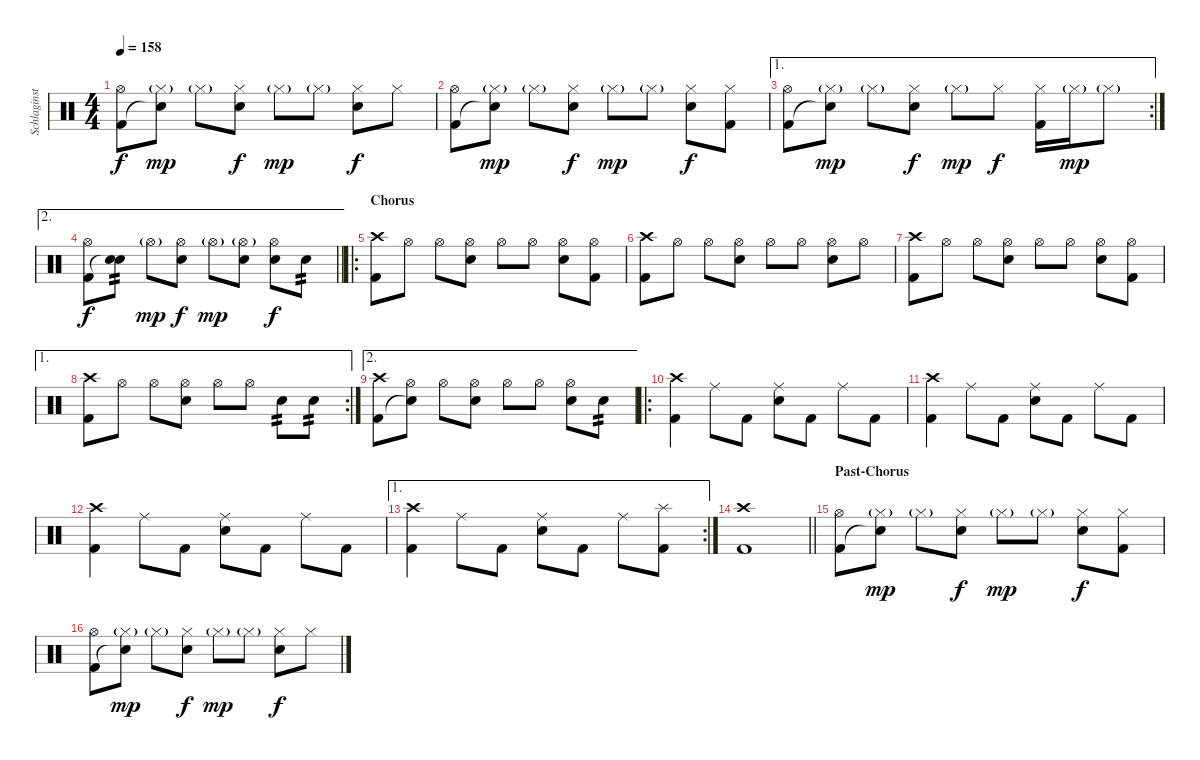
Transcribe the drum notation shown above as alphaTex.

\track ("Schlaginstrumente - Auswahl" "Schlaginst") {instrument percussion}
\staff {score}
\articulation defaults
\ts (4 4)
\tempo 158
\clef neutral
\ks c
("Hi-Hat (open)" "Kick (hit) 2").8{dy f} ("Hi-Hat (closed)"{g} "Snare (hit)"{t}).8{dy mp} "Hi-Hat (closed)"{g}.8 ("Hi-Hat (closed)" "Snare (hit) 2").8{dy f} "Hi-Hat (closed)"{g}.8{dy mp} "Hi-Hat (closed)"{g}.8 ("Hi-Hat (closed)" "Snare (hit) 2").8{dy f} "Hi-Hat (closed)".8 |
("Hi-Hat (open)" "Kick (hit) 2").8 ("Hi-Hat (closed)"{g} "Snare (hit)"{t}).8{dy mp} "Hi-Hat (closed)"{g}.8 ("Hi-Hat (closed)" "Snare (hit) 2").8{dy f} "Hi-Hat (closed)"{g}.8{dy mp} "Hi-Hat (closed)"{g}.8 ("Hi-Hat (closed)" "Snare (hit) 2").8{dy f} ("Hi-Hat (closed)" "Kick (hit) 2").8 |
\ae 1
\rc 2
("Hi-Hat (open)" "Kick (hit) 2").8 ("Hi-Hat (closed)"{g} "Snare (hit)"{t}).8{dy mp} "Hi-Hat (closed)"{g}.8 ("Hi-Hat (closed)" "Snare (hit) 2").8{dy f} "Hi-Hat (closed)"{g}.8{dy mp} "Hi-Hat (closed)".8{dy f} ("Hi-Hat (closed)" "Kick (hit) 2").16 "Hi-Hat (closed)"{g}.16{dy mp} "Hi-Hat (closed)"{g}.8 |
\ae 2
\barLineRight lightlight
("Hi-Hat (open)" "Kick (hit) 2").8{dy f} ("Snare (hit) 2" "Snare (hit)"{t}).8{tp 2} "Hi-Hat (open)"{g}.8{dy mp} ("Hi-Hat (open)" "Snare (hit) 2").8{dy f} "Hi-Hat (open)"{g}.8{dy mp} ("Hi-Hat (open)"{g} "Snare (hit) 2").8 ("Hi-Hat (open)" "Snare (hit) 2").8{dy f} "Snare (hit) 2".8{tp 2} |
\ro
\section ("" "Chorus")
("Crash high (hit)" "Kick (hit) 2").8 "Hi-Hat (open)".8 "Hi-Hat (open)".8 ("Hi-Hat (open)" "Snare (hit) 2").8 "Hi-Hat (open)".8 "Hi-Hat (open)".8 ("Hi-Hat (open)" "Snare (hit) 2").8 ("Hi-Hat (open)" "Kick (hit) 2").8 |
("Crash high (hit)" "Kick (hit) 2").8 "Hi-Hat (open)".8 "Hi-Hat (open)".8 ("Hi-Hat (open)" "Snare (hit) 2").8 "Hi-Hat (open)".8 "Hi-Hat (open)".8 ("Hi-Hat (open)" "Snare (hit) 2").8 "Hi-Hat (open)".8 |
("Crash high (hit)" "Kick (hit) 2").8 "Hi-Hat (open)".8 "Hi-Hat (open)".8 ("Hi-Hat (open)" "Snare (hit) 2").8 "Hi-Hat (open)".8 "Hi-Hat (open)".8 ("Hi-Hat (open)" "Snare (hit) 2").8 ("Hi-Hat (open)" "Kick (hit) 2").8 |
\ae 1
\rc 2
("Crash high (hit)" "Kick (hit) 2").8 "Hi-Hat (open)".8 "Hi-Hat (open)".8 ("Hi-Hat (open)" "Snare (hit) 2").8 "Hi-Hat (open)".8 "Hi-Hat (open)".8 "Snare (hit) 2".8{tp 2} "Snare (hit) 2".8{tp 2} |
\ae 2
("Crash high (hit)" "Kick (hit) 2").8 ("Hi-Hat (open)" "Snare (hit)"{t}).8 "Hi-Hat (open)".8 ("Hi-Hat (open)" "Snare (hit) 2").8 "Hi-Hat (open)".8 "Hi-Hat (open)".8 ("Hi-Hat (open)" "Snare (hit) 2").8 "Snare (hit) 2".8{tp 2} |
\ro
("Crash high (hit)" "Kick (hit) 2").4 "Ride (middle)".8 "Kick (hit) 2".8 ("Ride (middle)" "Snare (hit) 2").8 "Kick (hit) 2".8 "Ride (middle)".8 "Kick (hit) 2".8 |
("Crash high (hit)" "Kick (hit) 2").4 "Ride (middle)".8 "Kick (hit) 2".8 ("Ride (middle)" "Snare (hit) 2").8 "Kick (hit) 2".8 "Ride (middle)".8 "Kick (hit) 2".8 |
("Crash high (hit)" "Kick (hit) 2").4 "Ride (middle)".8 "Kick (hit) 2".8 ("Ride (middle)" "Snare (hit) 2").8 "Kick (hit) 2".8 "Ride (middle)".8 "Kick (hit) 2".8 |
\ae 1
\rc 2
("Crash high (hit)" "Kick (hit) 2").4 "Ride (middle)".8 "Kick (hit) 2".8 ("Ride (middle)" "Snare (hit) 2").8 "Kick (hit) 2".8 "Ride (middle)".8 ("Splash (hit)" "Kick (hit) 2").8 |
\barLineRight lightlight
("Crash high (hit)" "Kick (hit) 2").1 |
\section ("" "Past-Chorus")
("Hi-Hat (open)" "Kick (hit) 2").8 ("Hi-Hat (closed)"{g} "Snare (hit)"{t}).8{dy mp} "Hi-Hat (closed)"{g}.8 ("Hi-Hat (closed)" "Snare (hit) 2").8{dy f} "Hi-Hat (closed)"{g}.8{dy mp} "Hi-Hat (closed)"{g}.8 ("Hi-Hat (closed)" "Snare (hit) 2").8{dy f} ("Hi-Hat (closed)" "Kick (hit) 2").8 |
("Hi-Hat (open)" "Kick (hit) 2").8 ("Hi-Hat (closed)"{g} "Snare (hit)"{t}).8{dy mp} "Hi-Hat (closed)"{g}.8 ("Hi-Hat (closed)" "Snare (hit) 2").8{dy f} "Hi-Hat (closed)"{g}.8{dy mp} "Hi-Hat (closed)"{g}.8 ("Hi-Hat (closed)" "Snare (hit) 2").8{dy f} "Hi-Hat (closed)".8
